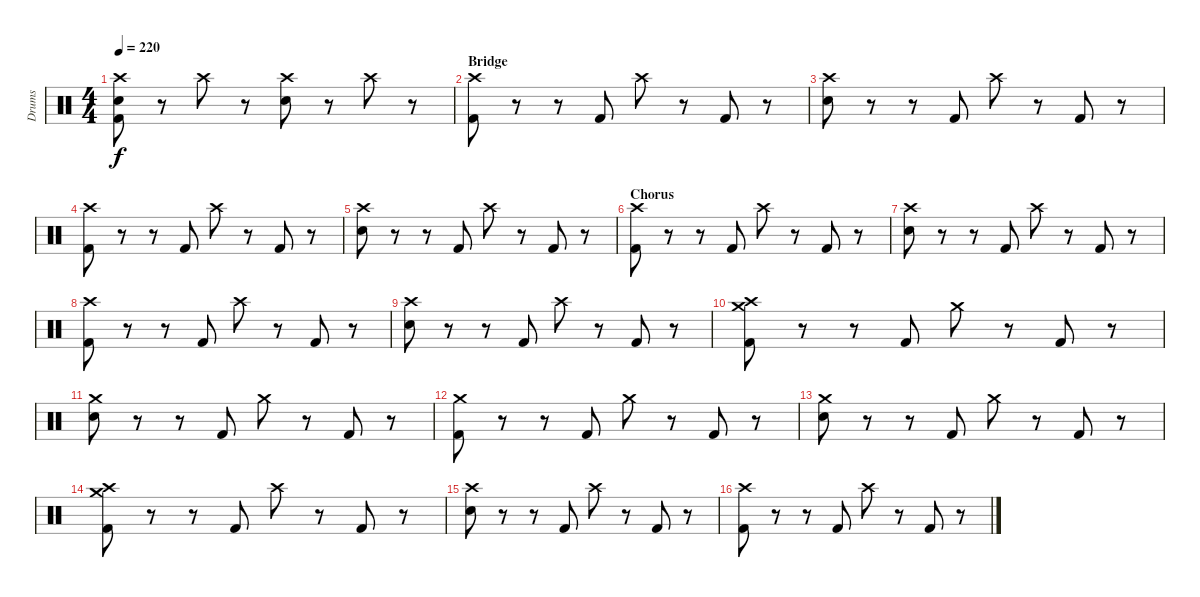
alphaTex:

\track ("Drums" "Drums") {instrument percussion}
\staff {score}
\articulation defaults
\ts (4 4)
\tempo 220
\clef neutral
\ks c
("Crash high (hit)" "Electric Snare (hit)" "Kick (hit) 2").8{dy f} r.8 "Crash high (hit)".8 r.8 ("Crash high (hit)" "Electric Snare (hit)").8 r.8 "Crash high (hit)".8 r.8 |
\section ("" "Bridge")
("Crash high (hit)" "Kick (hit) 2").8 r.8 r.8 "Kick (hit) 2".8 "Crash high (hit)".8 r.8 "Kick (hit) 2".8 r.8 |
("Crash high (hit)" "Electric Snare (hit)").8 r.8 r.8 "Kick (hit) 2".8 "Crash high (hit)".8 r.8 "Kick (hit) 2".8 r.8 |
("Crash high (hit)" "Kick (hit) 2").8 r.8 r.8 "Kick (hit) 2".8 "Crash high (hit)".8 r.8 "Kick (hit) 2".8 r.8 |
("Crash high (hit)" "Electric Snare (hit)").8 r.8 r.8 "Kick (hit) 2".8 "Crash high (hit)".8 r.8 "Kick (hit) 2".8 r.8 |
\section ("" "Chorus")
("Crash high (hit)" "Kick (hit) 2").8 r.8 r.8 "Kick (hit) 2".8 "Crash high (hit)".8 r.8 "Kick (hit) 2".8 r.8 |
("Crash high (hit)" "Electric Snare (hit)").8 r.8 r.8 "Kick (hit) 2".8 "Crash high (hit)".8 r.8 "Kick (hit) 2".8 r.8 |
("Crash high (hit)" "Kick (hit) 2").8 r.8 r.8 "Kick (hit) 2".8 "Crash high (hit)".8 r.8 "Kick (hit) 2".8 r.8 |
("Crash high (hit)" "Electric Snare (hit)").8 r.8 r.8 "Kick (hit) 2".8 "Crash high (hit)".8 r.8 "Kick (hit) 2".8 r.8 |
("Crash high (hit)" "Crash medium (hit)" "Kick (hit) 2").8 r.8 r.8 "Kick (hit) 2".8 "Crash medium (hit)".8 r.8 "Kick (hit) 2".8 r.8 |
("Crash medium (hit)" "Electric Snare (hit)").8 r.8 r.8 "Kick (hit) 2".8 "Crash medium (hit)".8 r.8 "Kick (hit) 2".8 r.8 |
("Crash medium (hit)" "Kick (hit) 2").8 r.8 r.8 "Kick (hit) 2".8 "Crash medium (hit)".8 r.8 "Kick (hit) 2".8 r.8 |
("Crash medium (hit)" "Electric Snare (hit)").8 r.8 r.8 "Kick (hit) 2".8 "Crash medium (hit)".8 r.8 "Kick (hit) 2".8 r.8 |
("Crash high (hit)" "Crash medium (hit)" "Kick (hit) 2").8 r.8 r.8 "Kick (hit) 2".8 "Crash high (hit)".8 r.8 "Kick (hit) 2".8 r.8 |
("Crash high (hit)" "Electric Snare (hit)").8 r.8 r.8 "Kick (hit) 2".8 "Crash high (hit)".8 r.8 "Kick (hit) 2".8 r.8 |
("Crash high (hit)" "Kick (hit) 2").8 r.8 r.8 "Kick (hit) 2".8 "Crash high (hit)".8 r.8 "Kick (hit) 2".8 r.8
